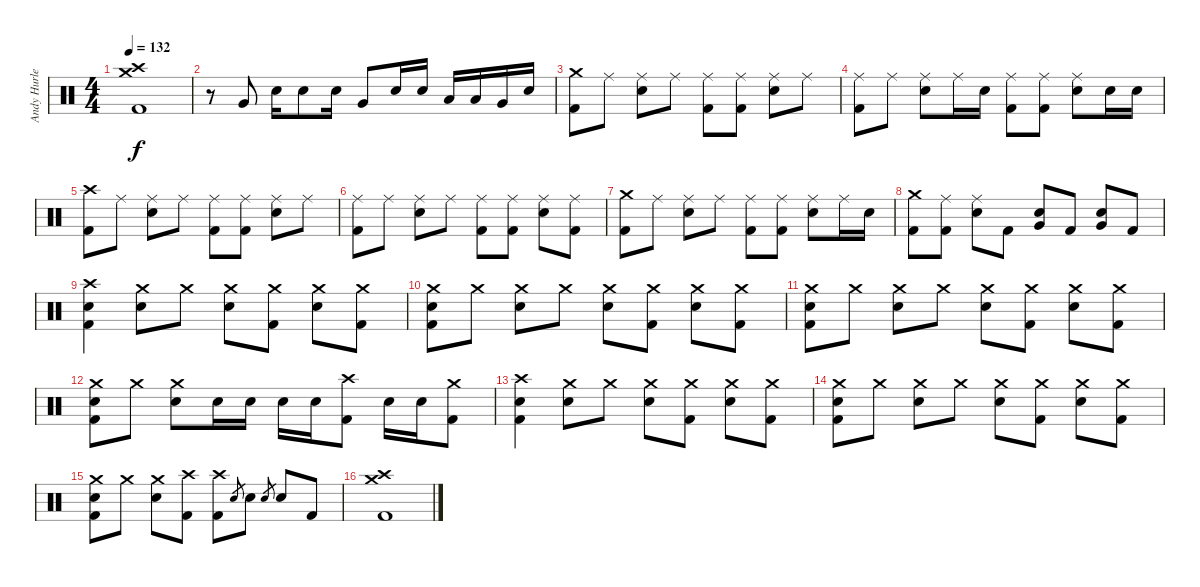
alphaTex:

\track ("Andy Hurley" "Andy Hurle") {instrument percussion}
\staff {score}
\articulation defaults
\ts (4 4)
\tempo 132
\clef neutral
\ks c
("Crash high (hit)" "Crash medium (hit)" "Kick (hit) 2").1{dy f} |
r.8 "Very Low Tom (hit)".8 "Snare (hit) 2".16 "Snare (hit) 2".8 "Snare (hit) 2".16 "Very Low Tom (hit)".8 "Snare (hit) 2".16 "Snare (hit) 2".16 "Low Tom (hit)".16 "Low Tom (hit)".16 "Very Low Tom (hit)".16 "Snare (hit) 2".16 |
("Crash medium (hit)" "Kick (hit) 2").8 "Ride (middle)".8 ("Ride (middle)" "Snare (hit) 2").8 "Ride (middle)".8 ("Ride (middle)" "Kick (hit) 2").8 ("Ride (middle)" "Kick (hit) 2").8 ("Ride (middle)" "Snare (hit) 2").8 "Ride (middle)".8 |
("Ride (middle)" "Kick (hit) 2").8 "Ride (middle)".8 ("Ride (middle)" "Snare (hit) 2").8 "Ride (middle)".16 "Snare (hit) 2".16 ("Ride (middle)" "Kick (hit) 2").8 ("Ride (middle)" "Kick (hit) 2").8 ("Ride (middle)" "Snare (hit) 2").8 "Snare (hit) 2".16 "Snare (hit) 2".16 |
("Crash high (hit)" "Kick (hit) 2").8 "Ride (middle)".8 ("Ride (middle)" "Snare (hit) 2").8 "Ride (middle)".8 ("Ride (middle)" "Kick (hit) 2").8 ("Ride (middle)" "Kick (hit) 2").8 ("Ride (middle)" "Snare (hit) 2").8 "Ride (middle)".8 |
("Ride (middle)" "Kick (hit) 2").8 "Ride (middle)".8 ("Ride (middle)" "Snare (hit) 2").8 "Ride (middle)".8 ("Ride (middle)" "Kick (hit) 2").8 ("Ride (middle)" "Kick (hit) 2").8 ("Ride (middle)" "Snare (hit) 2").8 ("Ride (middle)" "Kick (hit) 2").8 |
("Crash medium (hit)" "Kick (hit) 2").8 "Ride (middle)".8 ("Ride (middle)" "Snare (hit) 2").8 "Ride (middle)".8 ("Ride (middle)" "Kick (hit) 2").8 ("Ride (middle)" "Kick (hit) 2").8 ("Ride (middle)" "Snare (hit) 2").8 "Ride (middle)".16 "Snare (hit) 2".16 |
("Crash medium (hit)" "Kick (hit) 2").8 ("Ride (middle)" "Kick (hit) 2").8 ("Ride (middle)" "Snare (hit) 2").8 "Kick (hit) 2".8 ("Snare (hit) 2" "Very Low Tom (hit)").8 "Kick (hit) 2".8 ("Snare (hit) 2" "Very Low Tom (hit)").8 "Kick (hit) 2".8 |
("Crash high (hit)" "Snare (hit) 2" "Kick (hit) 2").4 ("Crash medium (hit)" "Snare (hit) 2").8 "Crash medium (hit)".8 ("Crash medium (hit)" "Snare (hit) 2").8 ("Crash medium (hit)" "Kick (hit) 2").8 ("Crash medium (hit)" "Snare (hit) 2").8 ("Crash medium (hit)" "Kick (hit) 2").8 |
("Crash medium (hit)" "Snare (hit) 2" "Kick (hit) 2").8 "Crash medium (hit)".8 ("Crash medium (hit)" "Snare (hit) 2").8 "Crash medium (hit)".8 ("Crash medium (hit)" "Snare (hit) 2").8 ("Crash medium (hit)" "Kick (hit) 2").8 ("Crash medium (hit)" "Snare (hit) 2").8 ("Crash medium (hit)" "Kick (hit) 2").8 |
("Crash medium (hit)" "Snare (hit) 2" "Kick (hit) 2").8 "Crash medium (hit)".8 ("Crash medium (hit)" "Snare (hit) 2").8 "Crash medium (hit)".8 ("Crash medium (hit)" "Snare (hit) 2").8 ("Crash medium (hit)" "Kick (hit) 2").8 ("Crash medium (hit)" "Snare (hit) 2").8 ("Crash medium (hit)" "Kick (hit) 2").8 |
("Crash medium (hit)" "Snare (hit) 2" "Kick (hit) 2").8 "Crash medium (hit)".8 ("Crash medium (hit)" "Snare (hit) 2").8 "Snare (hit) 2".16 "Snare (hit) 2".16 "Snare (hit) 2".16 "Snare (hit) 2".16 ("Crash high (hit)" "Kick (hit) 2").8 "Snare (hit) 2".16 "Snare (hit) 2".16 ("Crash medium (hit)" "Kick (hit) 2").8 |
("Crash high (hit)" "Snare (hit) 2" "Kick (hit) 2").4 ("Crash medium (hit)" "Snare (hit) 2").8 "Crash medium (hit)".8 ("Crash medium (hit)" "Snare (hit) 2").8 ("Crash medium (hit)" "Kick (hit) 2").8 ("Crash medium (hit)" "Snare (hit) 2").8 ("Crash medium (hit)" "Kick (hit) 2").8 |
("Crash medium (hit)" "Snare (hit) 2" "Kick (hit) 2").8 "Crash medium (hit)".8 ("Crash medium (hit)" "Snare (hit) 2").8 "Crash medium (hit)".8 ("Crash medium (hit)" "Snare (hit) 2").8 ("Crash medium (hit)" "Kick (hit) 2").8 ("Crash medium (hit)" "Snare (hit) 2").8 ("Crash medium (hit)" "Kick (hit) 2").8 |
("Crash medium (hit)" "Snare (hit) 2" "Kick (hit) 2").8 "Crash medium (hit)".8 ("Crash medium (hit)" "Snare (hit) 2").8 ("Crash high (hit)" "Kick (hit) 2").8 ("Crash high (hit)" "Kick (hit) 2").8 "Snare (hit) 2".8{gr} "Snare (hit) 2".8 "Snare (hit) 2".8{gr} "Snare (hit) 2".8 "Kick (hit) 2".8 |
("Crash high (hit)" "Crash medium (hit)" "Kick (hit) 2").1
